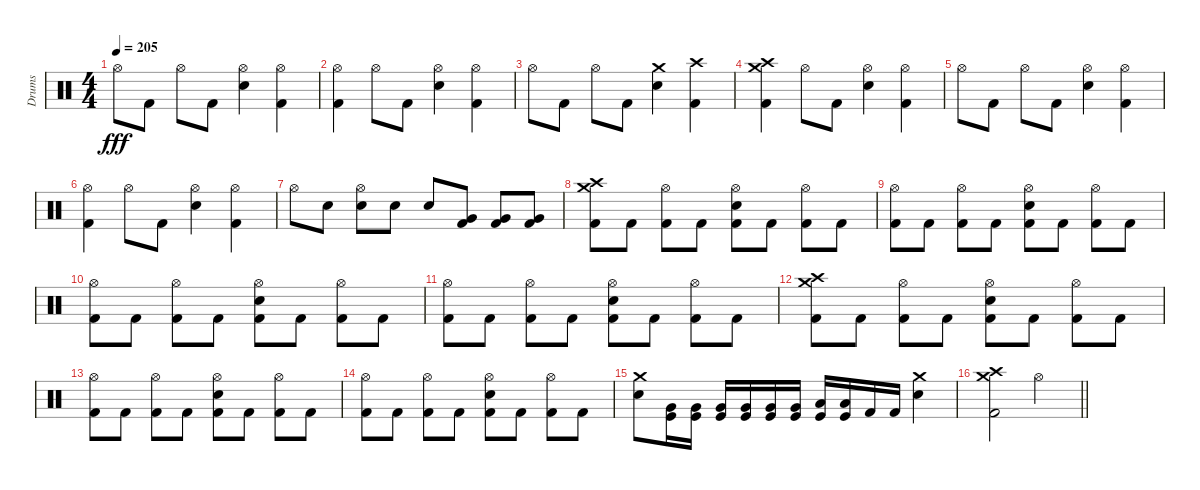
\track ("Drums" "Drums") {instrument percussion}
\staff {score}
\articulation defaults
\ts (4 4)
\tempo 205
\clef neutral
\ks c "Hi-Hat (open)".8{dy fff} "Kick (hit) 2".8 "Hi-Hat (open)".8 "Kick (hit) 2".8
("Hi-Hat (open)" "Electric Snare (hit)").4 ("Hi-Hat (open)" "Kick (hit) 2").4 |
("Hi-Hat (open)" "Kick (hit) 2").4 "Hi-Hat (open)".8 "Kick (hit) 2".8 ("Hi-Hat (open)" "Electric Snare (hit)").4 ("Hi-Hat (open)" "Kick (hit) 2").4 |
"Hi-Hat (open)".8 "Kick (hit) 2".8 "Hi-Hat (open)".8 "Kick (hit) 2".8 ("Crash medium (hit)" "Electric Snare (hit)").4 ("Crash high (hit)" "Kick (hit) 2").4 |
("Crash medium (hit)" "Crash high (hit)" "Kick (hit) 2").4 "Hi-Hat (open)".8 "Kick (hit) 2".8 ("Hi-Hat (open)" "Electric Snare (hit)").4 ("Hi-Hat (open)" "Kick (hit) 2").4 |
"Hi-Hat (open)".8 "Kick (hit) 2".8 "Hi-Hat (open)".8 "Kick (hit) 2".8 ("Hi-Hat (open)" "Electric Snare (hit)").4 ("Hi-Hat (open)" "Kick (hit) 2").4 |
("Hi-Hat (open)" "Kick (hit) 2").4 "Hi-Hat (open)".8 "Kick (hit) 2".8 ("Hi-Hat (open)" "Electric Snare (hit)").4 ("Hi-Hat (open)" "Kick (hit) 2").4 |
"Hi-Hat (open)".8 "Electric Snare (hit)".8 ("Hi-Hat (open)" "Electric Snare (hit)").8 "Electric Snare (hit)".8 "Electric Snare (hit)".8 ("Very Low Tom (hit)" "Kick (hit) 2").8 ("Very Low Tom (hit)" "Kick (hit) 2").8 ("Very Low Tom (hit)" "Kick (hit) 2").8 |
("Crash medium (hit)" "Crash high (hit)" "Kick (hit) 2").8 "Kick (hit) 2".8 ("Hi-Hat (open)" "Kick (hit) 2").8 "Kick (hit) 2".8 ("Hi-Hat (open)" "Electric Snare (hit)" "Kick (hit) 2").8 "Kick (hit) 2".8 ("Hi-Hat (open)" "Kick (hit) 2").8 "Kick (hit) 2".8 |
("Hi-Hat (open)" "Kick (hit) 2").8 "Kick (hit) 2".8 ("Hi-Hat (open)" "Kick (hit) 2").8 "Kick (hit) 2".8 ("Hi-Hat (open)" "Electric Snare (hit)" "Kick (hit) 2").8 "Kick (hit) 2".8 ("Hi-Hat (open)" "Kick (hit) 2").8 "Kick (hit) 2".8 |
("Hi-Hat (open)" "Kick (hit) 2").8 "Kick (hit) 2".8 ("Hi-Hat (open)" "Kick (hit) 2").8 "Kick (hit) 2".8 ("Hi-Hat (open)" "Electric Snare (hit)" "Kick (hit) 2").8 "Kick (hit) 2".8 ("Hi-Hat (open)" "Kick (hit) 2").8 "Kick (hit) 2".8 |
("Hi-Hat (open)" "Kick (hit) 2").8 "Kick (hit) 2".8 ("Hi-Hat (open)" "Kick (hit) 2").8 "Kick (hit) 2".8 ("Hi-Hat (open)" "Electric Snare (hit)" "Kick (hit) 2").8 "Kick (hit) 2".8 ("Hi-Hat (open)" "Kick (hit) 2").8 "Kick (hit) 2".8 |
("Crash medium (hit)" "Crash high (hit)" "Kick (hit) 2").8 "Kick (hit) 2".8 ("Hi-Hat (open)" "Kick (hit) 2").8 "Kick (hit) 2".8 ("Hi-Hat (open)" "Electric Snare (hit)" "Kick (hit) 2").8 "Kick (hit) 2".8 ("Hi-Hat (open)" "Kick (hit) 2").8 "Kick (hit) 2".8 |
("Hi-Hat (open)" "Kick (hit) 2").8 "Kick (hit) 2".8 ("Hi-Hat (open)" "Kick (hit) 2").8 "Kick (hit) 2".8 ("Hi-Hat (open)" "Electric Snare (hit)" "Kick (hit) 2").8 "Kick (hit) 2".8 ("Hi-Hat (open)" "Kick (hit) 2").8 "Kick (hit) 2".8 |
("Hi-Hat (open)" "Kick (hit) 2").8 "Kick (hit) 2".8 ("Hi-Hat (open)" "Kick (hit) 2").8 "Kick (hit) 2".8 ("Hi-Hat (open)" "Electric Snare (hit)" "Kick (hit) 2").8 "Kick (hit) 2".8 ("Hi-Hat (open)" "Kick (hit) 2").8 "Kick (hit) 2".8 |
("Crash medium (hit)" "Electric Snare (hit)").8 ("Very Low Tom (hit)" "Kick (hit)").16 ("Very Low Tom (hit)" "Kick (hit)").16 ("Very Low Tom (hit)" "Kick (hit)").16 ("Very Low Tom (hit)" "Kick (hit)").16 ("Very Low Tom (hit)" "Kick (hit)").16 ("Very Low Tom (hit)" "Kick (hit)").16 ("Low Floor Tom (hit)" "Kick (hit)").16 ("Low Floor Tom (hit)" "Kick (hit)").16 "Kick (hit) 2".16 "Kick (hit) 2".16 ("Crash medium (hit)" "Electric Snare (hit)").4 |
\barLineRight lightlight
("Crash medium (hit)" "Crash high (hit)" "Kick (hit) 2").2 "Hi-Hat (open)".2
